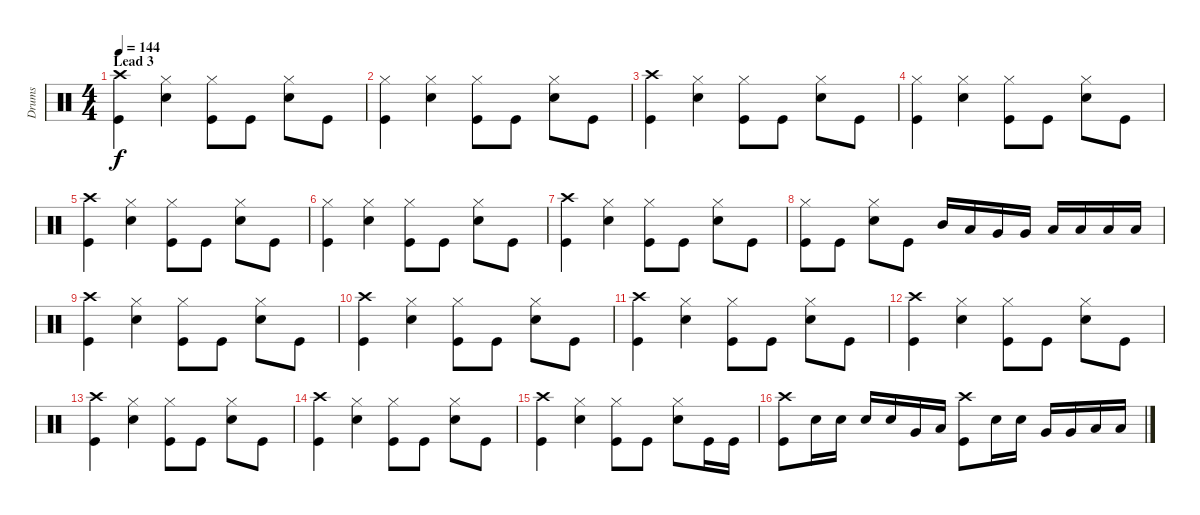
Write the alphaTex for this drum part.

\track ("Drums" "Drums") {instrument percussion}
\staff {score}
\articulation defaults
\ts (4 4)
\section ("" "Lead 3")
\tempo 144
\clef neutral
\ks c
("Crash high (hit)" "Kick (hit)").4{dy f} ("Hi-Hat (closed)" "Electric Snare (hit)").4 ("Hi-Hat (closed)" "Kick (hit)").8 "Kick (hit)".8 ("Hi-Hat (closed)" "Electric Snare (hit)").8 "Kick (hit)".8 |
("Hi-Hat (closed)" "Kick (hit)").4 ("Hi-Hat (closed)" "Electric Snare (hit)").4 ("Hi-Hat (closed)" "Kick (hit)").8 "Kick (hit)".8 ("Hi-Hat (closed)" "Electric Snare (hit)").8 "Kick (hit)".8 |
("Crash high (hit)" "Kick (hit)").4 ("Hi-Hat (closed)" "Electric Snare (hit)").4 ("Hi-Hat (closed)" "Kick (hit)").8 "Kick (hit)".8 ("Hi-Hat (closed)" "Electric Snare (hit)").8 "Kick (hit)".8 |
("Hi-Hat (closed)" "Kick (hit)").4 ("Hi-Hat (closed)" "Electric Snare (hit)").4 ("Hi-Hat (closed)" "Kick (hit)").8 "Kick (hit)".8 ("Hi-Hat (closed)" "Electric Snare (hit)").8 "Kick (hit)".8 |
("Crash high (hit)" "Kick (hit)").4 ("Hi-Hat (closed)" "Electric Snare (hit)").4 ("Hi-Hat (closed)" "Kick (hit)").8 "Kick (hit)".8 ("Hi-Hat (closed)" "Electric Snare (hit)").8 "Kick (hit)".8 |
("Hi-Hat (closed)" "Kick (hit)").4 ("Hi-Hat (closed)" "Electric Snare (hit)").4 ("Hi-Hat (closed)" "Kick (hit)").8 "Kick (hit)".8 ("Hi-Hat (closed)" "Electric Snare (hit)").8 "Kick (hit)".8 |
("Crash high (hit)" "Kick (hit)").4 ("Hi-Hat (closed)" "Electric Snare (hit)").4 ("Hi-Hat (closed)" "Kick (hit)").8 "Kick (hit)".8 ("Hi-Hat (closed)" "Electric Snare (hit)").8 "Kick (hit)".8 |
("Hi-Hat (closed)" "Kick (hit)").8 "Kick (hit)".8 ("Hi-Hat (closed)" "Electric Snare (hit)").8 "Kick (hit)".8 "Mid Tom (hit)".16 "Low Tom (hit)".16 "Very Low Tom (hit)".16 "Very Low Tom (hit)".16 "Low Floor Tom (hit)".16 "Low Floor Tom (hit)".16 "Low Floor Tom (hit)".16 "Low Floor Tom (hit)".16 |
("Crash high (hit)" "Kick (hit)").4 ("Hi-Hat (closed)" "Electric Snare (hit)").4 ("Hi-Hat (closed)" "Kick (hit)").8 "Kick (hit)".8 ("Hi-Hat (closed)" "Electric Snare (hit)").8 "Kick (hit)".8 |
("Crash high (hit)" "Kick (hit)").4 ("Hi-Hat (closed)" "Electric Snare (hit)").4 ("Hi-Hat (closed)" "Kick (hit)").8 "Kick (hit)".8 ("Hi-Hat (closed)" "Electric Snare (hit)").8 "Kick (hit)".8 |
("Crash high (hit)" "Kick (hit)").4 ("Hi-Hat (closed)" "Electric Snare (hit)").4 ("Hi-Hat (closed)" "Kick (hit)").8 "Kick (hit)".8 ("Hi-Hat (closed)" "Electric Snare (hit)").8 "Kick (hit)".8 |
("Crash high (hit)" "Kick (hit)").4 ("Hi-Hat (closed)" "Electric Snare (hit)").4 ("Hi-Hat (closed)" "Kick (hit)").8 "Kick (hit)".8 ("Hi-Hat (closed)" "Electric Snare (hit)").8 "Kick (hit)".8 |
("Crash high (hit)" "Kick (hit)").4 ("Hi-Hat (closed)" "Electric Snare (hit)").4 ("Hi-Hat (closed)" "Kick (hit)").8 "Kick (hit)".8 ("Hi-Hat (closed)" "Electric Snare (hit)").8 "Kick (hit)".8 |
("Crash high (hit)" "Kick (hit)").4 ("Hi-Hat (closed)" "Electric Snare (hit)").4 ("Hi-Hat (closed)" "Kick (hit)").8 "Kick (hit)".8 ("Hi-Hat (closed)" "Electric Snare (hit)").8 "Kick (hit)".8 |
("Crash high (hit)" "Kick (hit)").4 ("Hi-Hat (closed)" "Electric Snare (hit)").4 ("Hi-Hat (closed)" "Kick (hit)").8 "Kick (hit)".8 ("Hi-Hat (closed)" "Electric Snare (hit)").8 "Kick (hit)".16 "Kick (hit)".16 |
("Crash high (hit)" "Kick (hit)").8 "Electric Snare (hit)".16 "Electric Snare (hit)".16 "Electric Snare (hit)".16 "Electric Snare (hit)".16 "Very Low Tom (hit)".16 "Low Floor Tom (hit)".16 ("Crash high (hit)" "Kick (hit)").8 "Electric Snare (hit)".16 "Electric Snare (hit)".16 "Very Low Tom (hit)".16 "Very Low Tom (hit)".16 "Low Floor Tom (hit)".16 "Low Floor Tom (hit)".16
